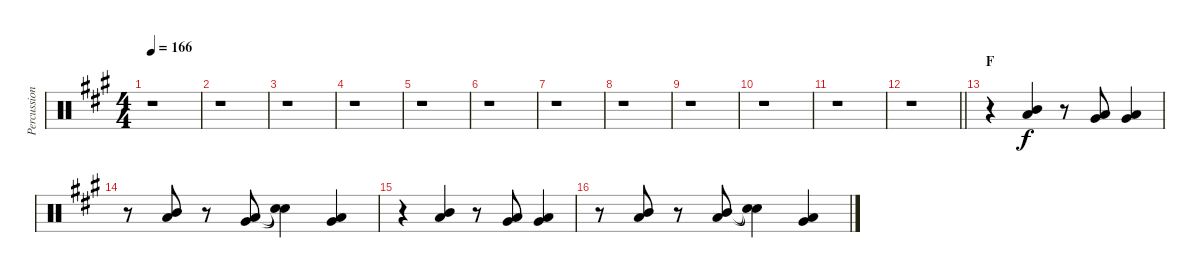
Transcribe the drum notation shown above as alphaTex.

\track ("Percussion II" "Percussion") {instrument percussion}
\staff {score}
\articulation defaults
\ts (4 4)
\tempo 166
\clef neutral
\ks a
r.1{dy mf} |
r.1 |
r.1 |
r.1 |
r.1 |
r.1 |
r.1 |
r.1 |
r.1 |
r.1 |
r.1 |
\barLineRight lightlight
r.1 |
\section ("" "F")
r.4 ("Mid Tom (hit)" "Low Tom (hit)").4{dy f} r.8 ("Very Low Tom (hit)" "Low Tom (hit)").8 ("Very Low Tom (hit)" "Low Tom (hit)").4 |
r.8 ("Mid Tom (hit)" "Low Tom (hit)").8 r.8 ("Very Low Tom (hit)" "Low Tom (hit)").8 ("Snare (hit)"{t} "Snare (hit)"{t}).4 ("Very Low Tom (hit)" "Low Tom (hit)").4 |
r.4 ("Mid Tom (hit)" "Low Tom (hit)").4 r.8 ("Very Low Tom (hit)" "Low Tom (hit)").8 ("Very Low Tom (hit)" "Low Tom (hit)").4 |
r.8 ("Mid Tom (hit)" "Low Tom (hit)").8 r.8 ("Mid Tom (hit)" "Low Tom (hit)").8 ("Snare (hit)"{t} "Snare (hit)"{t}).4 ("Very Low Tom (hit)" "Low Tom (hit)").4
